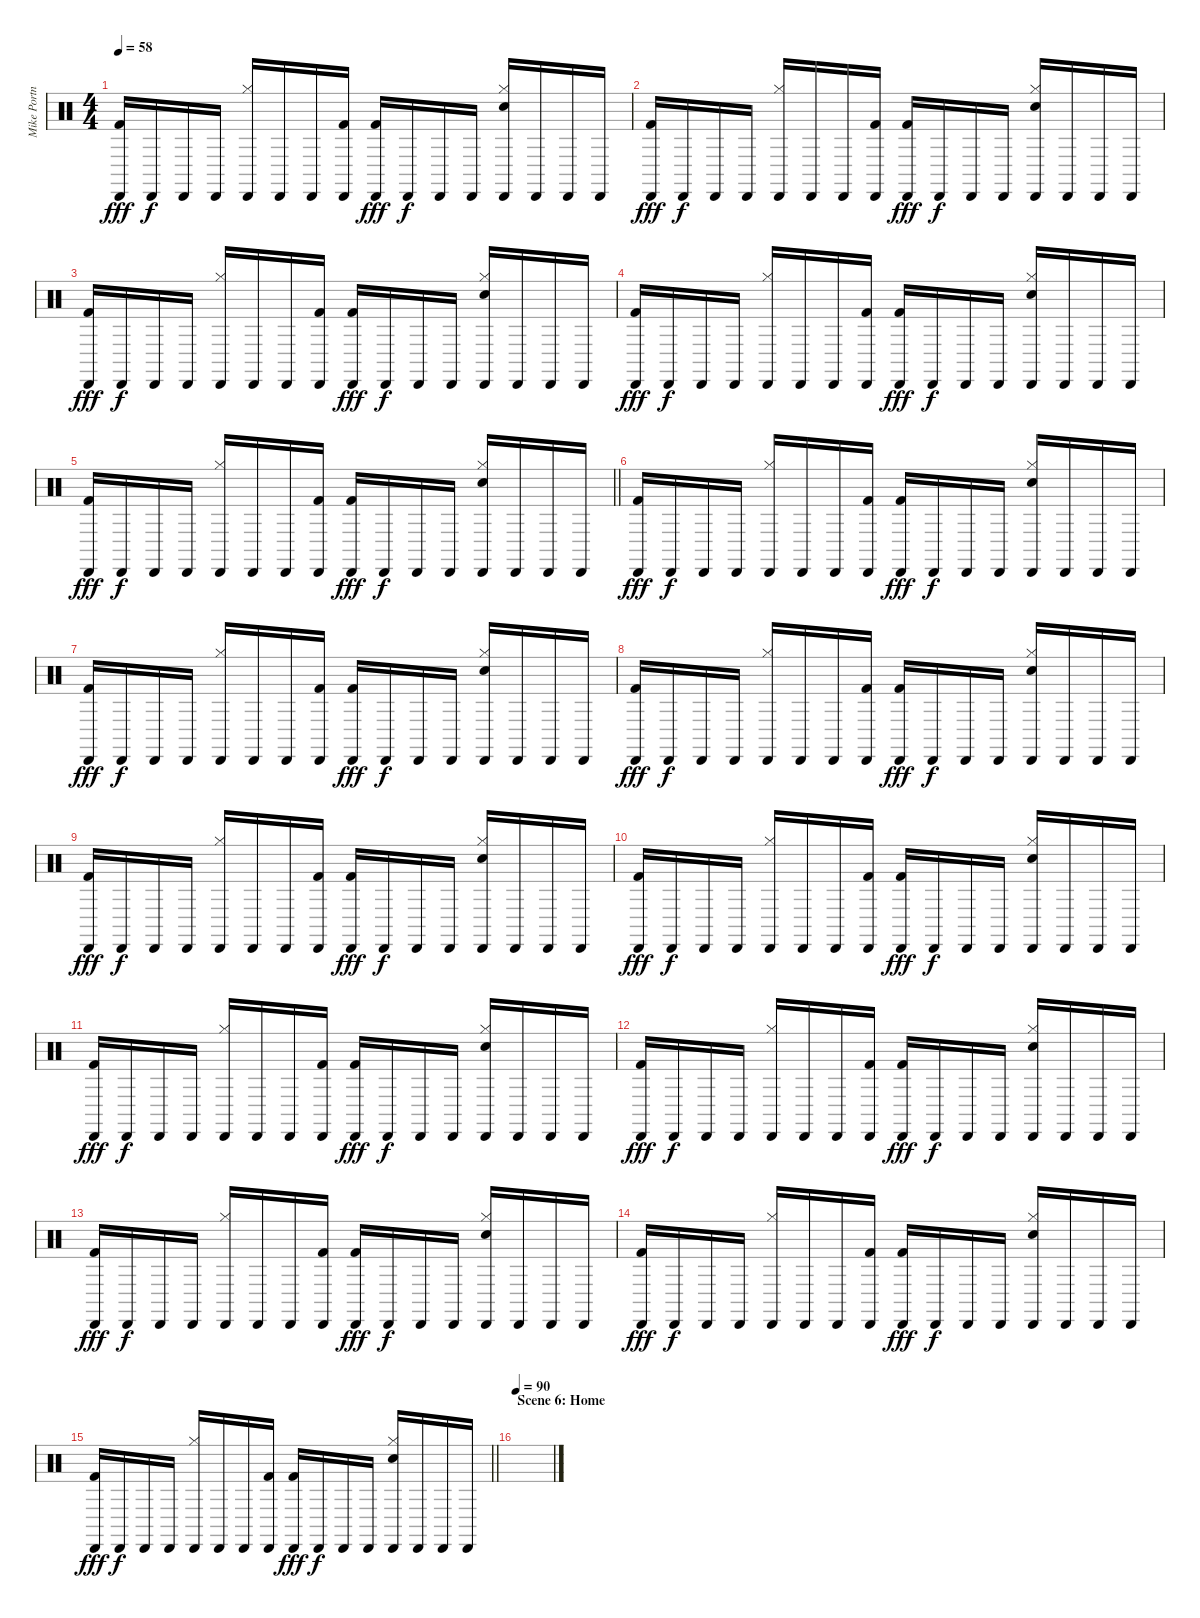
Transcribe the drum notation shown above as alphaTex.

\track ("Mike Portnoy" "Mike Portn") {instrument percussion}
\staff {score}
\articulation defaults
\ts (4 4)
\tempo 58
\clef neutral
\ks c
("Cabasa (hit)" "Kick (hit) 2").16{dy fff} "Cabasa (hit)".16{dy f} "Cabasa (hit)".16 "Cabasa (hit)".16 ("Hi-Hat (closed)" "Cabasa (hit)").16 "Cabasa (hit)".16 "Cabasa (hit)".16 ("Cabasa (hit)" "Kick (hit) 2").16 ("Cabasa (hit)" "Kick (hit) 2").16{dy fff} "Cabasa (hit)".16{dy f} "Cabasa (hit)".16 "Cabasa (hit)".16 ("Hi-Hat (closed)" "Cabasa (hit)" "Snare (hit) 2").16 "Cabasa (hit)".16 "Cabasa (hit)".16 "Cabasa (hit)".16 |
("Cabasa (hit)" "Kick (hit) 2").16{dy fff} "Cabasa (hit)".16{dy f} "Cabasa (hit)".16 "Cabasa (hit)".16 ("Hi-Hat (closed)" "Cabasa (hit)").16 "Cabasa (hit)".16 "Cabasa (hit)".16 ("Cabasa (hit)" "Kick (hit) 2").16 ("Cabasa (hit)" "Kick (hit) 2").16{dy fff} "Cabasa (hit)".16{dy f} "Cabasa (hit)".16 "Cabasa (hit)".16 ("Hi-Hat (closed)" "Cabasa (hit)" "Snare (hit) 2").16 "Cabasa (hit)".16 "Cabasa (hit)".16 "Cabasa (hit)".16 |
("Cabasa (hit)" "Kick (hit) 2").16{dy fff} "Cabasa (hit)".16{dy f} "Cabasa (hit)".16 "Cabasa (hit)".16 ("Hi-Hat (closed)" "Cabasa (hit)").16 "Cabasa (hit)".16 "Cabasa (hit)".16 ("Cabasa (hit)" "Kick (hit) 2").16 ("Cabasa (hit)" "Kick (hit) 2").16{dy fff} "Cabasa (hit)".16{dy f} "Cabasa (hit)".16 "Cabasa (hit)".16 ("Hi-Hat (closed)" "Cabasa (hit)" "Snare (hit) 2").16 "Cabasa (hit)".16 "Cabasa (hit)".16 "Cabasa (hit)".16 |
("Cabasa (hit)" "Kick (hit) 2").16{dy fff} "Cabasa (hit)".16{dy f} "Cabasa (hit)".16 "Cabasa (hit)".16 ("Hi-Hat (closed)" "Cabasa (hit)").16 "Cabasa (hit)".16 "Cabasa (hit)".16 ("Cabasa (hit)" "Kick (hit) 2").16 ("Cabasa (hit)" "Kick (hit) 2").16{dy fff} "Cabasa (hit)".16{dy f} "Cabasa (hit)".16 "Cabasa (hit)".16 ("Hi-Hat (closed)" "Cabasa (hit)" "Snare (hit) 2").16 "Cabasa (hit)".16 "Cabasa (hit)".16 "Cabasa (hit)".16 |
\barLineRight lightlight
("Cabasa (hit)" "Kick (hit) 2").16{dy fff} "Cabasa (hit)".16{dy f} "Cabasa (hit)".16 "Cabasa (hit)".16 ("Hi-Hat (closed)" "Cabasa (hit)").16 "Cabasa (hit)".16 "Cabasa (hit)".16 ("Cabasa (hit)" "Kick (hit) 2").16 ("Cabasa (hit)" "Kick (hit) 2").16{dy fff} "Cabasa (hit)".16{dy f} "Cabasa (hit)".16 "Cabasa (hit)".16 ("Hi-Hat (closed)" "Cabasa (hit)" "Snare (hit) 2").16 "Cabasa (hit)".16 "Cabasa (hit)".16 "Cabasa (hit)".16 |
("Cabasa (hit)" "Kick (hit) 2").16{dy fff} "Cabasa (hit)".16{dy f} "Cabasa (hit)".16 "Cabasa (hit)".16 ("Hi-Hat (closed)" "Cabasa (hit)").16 "Cabasa (hit)".16 "Cabasa (hit)".16 ("Cabasa (hit)" "Kick (hit) 2").16 ("Cabasa (hit)" "Kick (hit) 2").16{dy fff} "Cabasa (hit)".16{dy f} "Cabasa (hit)".16 "Cabasa (hit)".16 ("Hi-Hat (closed)" "Cabasa (hit)" "Snare (hit) 2").16 "Cabasa (hit)".16 "Cabasa (hit)".16 "Cabasa (hit)".16 |
("Cabasa (hit)" "Kick (hit) 2").16{dy fff} "Cabasa (hit)".16{dy f} "Cabasa (hit)".16 "Cabasa (hit)".16 ("Hi-Hat (closed)" "Cabasa (hit)").16 "Cabasa (hit)".16 "Cabasa (hit)".16 ("Cabasa (hit)" "Kick (hit) 2").16 ("Cabasa (hit)" "Kick (hit) 2").16{dy fff} "Cabasa (hit)".16{dy f} "Cabasa (hit)".16 "Cabasa (hit)".16 ("Hi-Hat (closed)" "Cabasa (hit)" "Snare (hit) 2").16 "Cabasa (hit)".16 "Cabasa (hit)".16 "Cabasa (hit)".16 |
("Cabasa (hit)" "Kick (hit) 2").16{dy fff} "Cabasa (hit)".16{dy f} "Cabasa (hit)".16 "Cabasa (hit)".16 ("Hi-Hat (closed)" "Cabasa (hit)").16 "Cabasa (hit)".16 "Cabasa (hit)".16 ("Cabasa (hit)" "Kick (hit) 2").16 ("Cabasa (hit)" "Kick (hit) 2").16{dy fff} "Cabasa (hit)".16{dy f} "Cabasa (hit)".16 "Cabasa (hit)".16 ("Hi-Hat (closed)" "Cabasa (hit)" "Snare (hit) 2").16 "Cabasa (hit)".16 "Cabasa (hit)".16 "Cabasa (hit)".16 |
("Cabasa (hit)" "Kick (hit) 2").16{dy fff} "Cabasa (hit)".16{dy f} "Cabasa (hit)".16 "Cabasa (hit)".16 ("Hi-Hat (closed)" "Cabasa (hit)").16 "Cabasa (hit)".16 "Cabasa (hit)".16 ("Cabasa (hit)" "Kick (hit) 2").16 ("Cabasa (hit)" "Kick (hit) 2").16{dy fff} "Cabasa (hit)".16{dy f} "Cabasa (hit)".16 "Cabasa (hit)".16 ("Hi-Hat (closed)" "Cabasa (hit)" "Snare (hit) 2").16 "Cabasa (hit)".16 "Cabasa (hit)".16 "Cabasa (hit)".16 |
("Cabasa (hit)" "Kick (hit) 2").16{dy fff} "Cabasa (hit)".16{dy f} "Cabasa (hit)".16 "Cabasa (hit)".16 ("Hi-Hat (closed)" "Cabasa (hit)").16 "Cabasa (hit)".16 "Cabasa (hit)".16 ("Cabasa (hit)" "Kick (hit) 2").16 ("Cabasa (hit)" "Kick (hit) 2").16{dy fff} "Cabasa (hit)".16{dy f} "Cabasa (hit)".16 "Cabasa (hit)".16 ("Hi-Hat (closed)" "Cabasa (hit)" "Snare (hit) 2").16 "Cabasa (hit)".16 "Cabasa (hit)".16 "Cabasa (hit)".16 |
("Cabasa (hit)" "Kick (hit) 2").16{dy fff} "Cabasa (hit)".16{dy f} "Cabasa (hit)".16 "Cabasa (hit)".16 ("Hi-Hat (closed)" "Cabasa (hit)").16 "Cabasa (hit)".16 "Cabasa (hit)".16 ("Cabasa (hit)" "Kick (hit) 2").16 ("Cabasa (hit)" "Kick (hit) 2").16{dy fff} "Cabasa (hit)".16{dy f} "Cabasa (hit)".16 "Cabasa (hit)".16 ("Hi-Hat (closed)" "Cabasa (hit)" "Snare (hit) 2").16 "Cabasa (hit)".16 "Cabasa (hit)".16 "Cabasa (hit)".16 |
("Cabasa (hit)" "Kick (hit) 2").16{dy fff volume 0} "Cabasa (hit)".16{dy f} "Cabasa (hit)".16 "Cabasa (hit)".16 ("Hi-Hat (closed)" "Cabasa (hit)").16 "Cabasa (hit)".16 "Cabasa (hit)".16 ("Cabasa (hit)" "Kick (hit) 2").16 ("Cabasa (hit)" "Kick (hit) 2").16{dy fff} "Cabasa (hit)".16{dy f} "Cabasa (hit)".16 "Cabasa (hit)".16 ("Hi-Hat (closed)" "Cabasa (hit)" "Snare (hit) 2").16 "Cabasa (hit)".16 "Cabasa (hit)".16 "Cabasa (hit)".16 |
("Cabasa (hit)" "Kick (hit) 2").16{dy fff} "Cabasa (hit)".16{dy f} "Cabasa (hit)".16 "Cabasa (hit)".16 ("Hi-Hat (closed)" "Cabasa (hit)").16 "Cabasa (hit)".16 "Cabasa (hit)".16 ("Cabasa (hit)" "Kick (hit) 2").16 ("Cabasa (hit)" "Kick (hit) 2").16{dy fff} "Cabasa (hit)".16{dy f} "Cabasa (hit)".16 "Cabasa (hit)".16 ("Hi-Hat (closed)" "Cabasa (hit)" "Snare (hit) 2").16 "Cabasa (hit)".16 "Cabasa (hit)".16 "Cabasa (hit)".16 |
("Cabasa (hit)" "Kick (hit) 2").16{dy fff} "Cabasa (hit)".16{dy f} "Cabasa (hit)".16 "Cabasa (hit)".16 ("Hi-Hat (closed)" "Cabasa (hit)").16 "Cabasa (hit)".16 "Cabasa (hit)".16 ("Cabasa (hit)" "Kick (hit) 2").16 ("Cabasa (hit)" "Kick (hit) 2").16{dy fff} "Cabasa (hit)".16{dy f} "Cabasa (hit)".16 "Cabasa (hit)".16 ("Hi-Hat (closed)" "Cabasa (hit)" "Snare (hit) 2").16 "Cabasa (hit)".16 "Cabasa (hit)".16 "Cabasa (hit)".16 |
\barLineRight lightlight
("Cabasa (hit)" "Kick (hit) 2").16{dy fff} "Cabasa (hit)".16{dy f} "Cabasa (hit)".16 "Cabasa (hit)".16 ("Hi-Hat (closed)" "Cabasa (hit)").16 "Cabasa (hit)".16 "Cabasa (hit)".16 ("Cabasa (hit)" "Kick (hit) 2").16 ("Cabasa (hit)" "Kick (hit) 2").16{dy fff} "Cabasa (hit)".16{dy f} "Cabasa (hit)".16 "Cabasa (hit)".16 ("Hi-Hat (closed)" "Cabasa (hit)" "Snare (hit) 2").16 "Cabasa (hit)".16 "Cabasa (hit)".16 "Cabasa (hit)".16 |
\section ("" "Scene 6: Home")
\tempo 90
